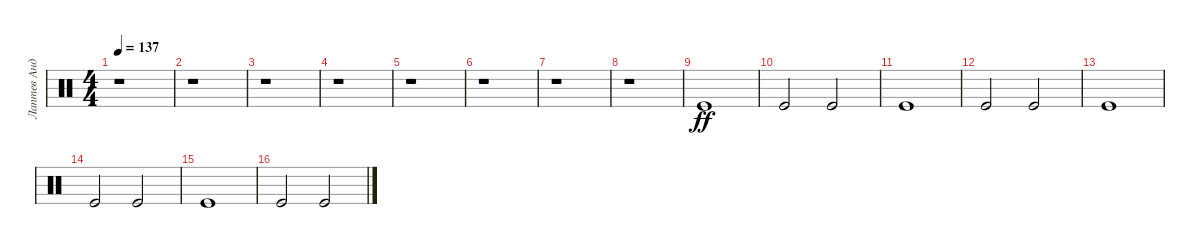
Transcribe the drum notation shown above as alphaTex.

\track ("Лаптев Андрей" "Лаптев Анд") {instrument percussion}
\staff {score}
\articulation defaults
\ts (4 4)
\tempo 137
\clef neutral
\ks c
r.1{dy ff} |
r.1 |
r.1 |
r.1 |
r.1 |
r.1 |
r.1 |
r.1 |
"Kick (hit)".1 |
"Kick (hit)".2 "Kick (hit)".2 |
"Kick (hit)".1 |
"Kick (hit)".2 "Kick (hit)".2 |
"Kick (hit)".1 |
"Kick (hit)".2 "Kick (hit)".2 |
"Kick (hit)".1 |
"Kick (hit)".2 "Kick (hit)".2
